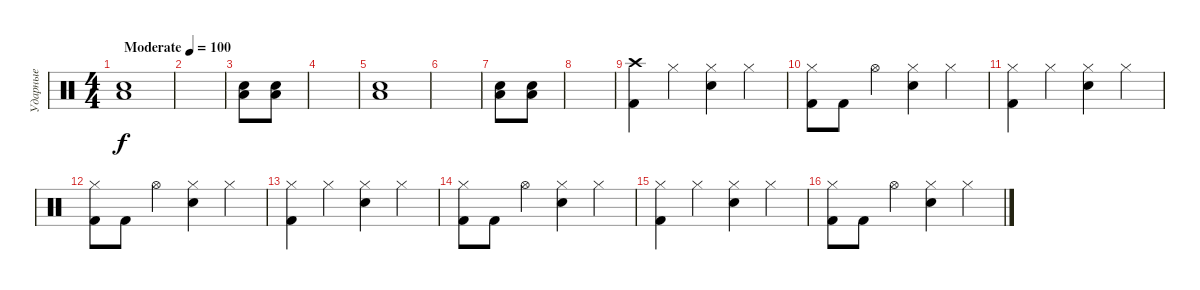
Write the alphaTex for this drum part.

\track ("Ударные" "Ударные") {instrument percussion}
\staff {score}
\articulation defaults
\ts (4 4)
\tempo (100 "Moderate")
\clef neutral
\ks c
("Snare (hit) 2" "Low Floor Tom (hit)").1{dy f} |
|
("Snare (hit) 2" "Low Floor Tom (hit)").8 ("Snare (hit) 2" "Low Floor Tom (hit)").8 |
|
("Snare (hit) 2" "Low Floor Tom (hit)").1 |
|
("Snare (hit) 2" "Low Floor Tom (hit)").8 ("Snare (hit) 2" "Low Floor Tom (hit)").8 |
|
("Crash high (hit)" "Kick (hit) 2").4 "Hi-Hat (closed)".4 ("Hi-Hat (closed)" "Snare (hit) 2").4 "Hi-Hat (closed)".4 |
("Hi-Hat (closed)" "Kick (hit) 2").8 "Kick (hit) 2".8 "Hi-Hat (open)".4 ("Hi-Hat (closed)" "Snare (hit) 2").4 "Hi-Hat (closed)".4 |
("Hi-Hat (closed)" "Kick (hit) 2").4 "Hi-Hat (closed)".4 ("Hi-Hat (closed)" "Snare (hit) 2").4 "Hi-Hat (closed)".4 |
("Hi-Hat (closed)" "Kick (hit) 2").8 "Kick (hit) 2".8 "Hi-Hat (open)".4 ("Hi-Hat (closed)" "Snare (hit) 2").4 "Hi-Hat (closed)".4 |
("Hi-Hat (closed)" "Kick (hit) 2").4 "Hi-Hat (closed)".4 ("Hi-Hat (closed)" "Snare (hit) 2").4 "Hi-Hat (closed)".4 |
("Hi-Hat (closed)" "Kick (hit) 2").8 "Kick (hit) 2".8 "Hi-Hat (open)".4 ("Hi-Hat (closed)" "Snare (hit) 2").4 "Hi-Hat (closed)".4 |
("Hi-Hat (closed)" "Kick (hit) 2").4 "Hi-Hat (closed)".4 ("Hi-Hat (closed)" "Snare (hit) 2").4 "Hi-Hat (closed)".4 |
("Hi-Hat (closed)" "Kick (hit) 2").8 "Kick (hit) 2".8 "Hi-Hat (open)".4 ("Hi-Hat (closed)" "Snare (hit) 2").4 "Hi-Hat (closed)".4
